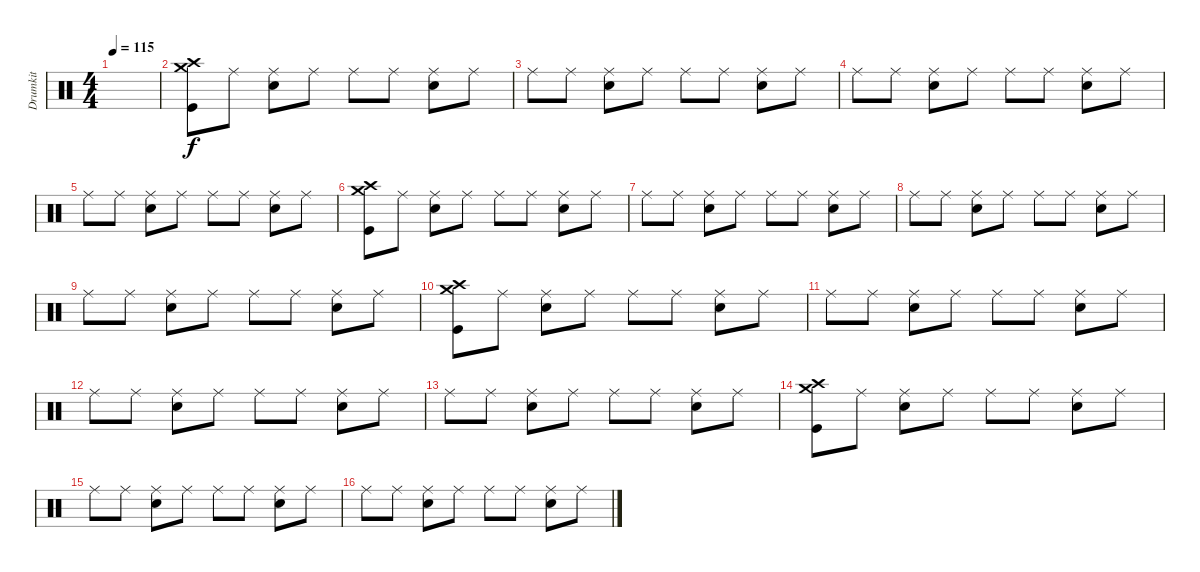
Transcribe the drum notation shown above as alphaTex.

\track ("Drumkit" "Drumkit") {instrument percussion}
\staff {score}
\articulation defaults
\ts (4 4)
\tempo 115
\clef neutral
\ks c
|
("Kick (hit)" "Crash high (hit)" "Crash medium (hit)").8 "Ride (middle)".8 ("Snare (hit) 2" "Ride (middle)").8 "Ride (middle)".8 "Ride (middle)".8 "Ride (middle)".8 ("Snare (hit) 2" "Ride (middle)").8 "Ride (middle)".8 |
"Ride (middle)".8 "Ride (middle)".8 ("Snare (hit) 2" "Ride (middle)").8 "Ride (middle)".8 "Ride (middle)".8 "Ride (middle)".8 ("Snare (hit) 2" "Ride (middle)").8 "Ride (middle)".8 |
"Ride (middle)".8 "Ride (middle)".8 ("Snare (hit) 2" "Ride (middle)").8 "Ride (middle)".8 "Ride (middle)".8 "Ride (middle)".8 ("Snare (hit) 2" "Ride (middle)").8 "Ride (middle)".8 |
"Ride (middle)".8 "Ride (middle)".8 ("Snare (hit) 2" "Ride (middle)").8 "Ride (middle)".8 "Ride (middle)".8 "Ride (middle)".8 ("Snare (hit) 2" "Ride (middle)").8 "Ride (middle)".8 |
("Kick (hit)" "Crash high (hit)" "Crash medium (hit)").8 "Ride (middle)".8 ("Snare (hit) 2" "Ride (middle)").8 "Ride (middle)".8 "Ride (middle)".8 "Ride (middle)".8 ("Snare (hit) 2" "Ride (middle)").8 "Ride (middle)".8 |
"Ride (middle)".8 "Ride (middle)".8 ("Snare (hit) 2" "Ride (middle)").8 "Ride (middle)".8 "Ride (middle)".8 "Ride (middle)".8 ("Snare (hit) 2" "Ride (middle)").8 "Ride (middle)".8 |
"Ride (middle)".8 "Ride (middle)".8 ("Snare (hit) 2" "Ride (middle)").8 "Ride (middle)".8 "Ride (middle)".8 "Ride (middle)".8 ("Snare (hit) 2" "Ride (middle)").8 "Ride (middle)".8 |
"Ride (middle)".8 "Ride (middle)".8 ("Snare (hit) 2" "Ride (middle)").8 "Ride (middle)".8 "Ride (middle)".8 "Ride (middle)".8 ("Snare (hit) 2" "Ride (middle)").8 "Ride (middle)".8 |
("Kick (hit)" "Crash high (hit)" "Crash medium (hit)").8 "Ride (middle)".8 ("Snare (hit) 2" "Ride (middle)").8 "Ride (middle)".8 "Ride (middle)".8 "Ride (middle)".8 ("Snare (hit) 2" "Ride (middle)").8 "Ride (middle)".8 |
"Ride (middle)".8 "Ride (middle)".8 ("Snare (hit) 2" "Ride (middle)").8 "Ride (middle)".8 "Ride (middle)".8 "Ride (middle)".8 ("Snare (hit) 2" "Ride (middle)").8 "Ride (middle)".8 |
"Ride (middle)".8 "Ride (middle)".8 ("Snare (hit) 2" "Ride (middle)").8 "Ride (middle)".8 "Ride (middle)".8 "Ride (middle)".8 ("Snare (hit) 2" "Ride (middle)").8 "Ride (middle)".8 |
"Ride (middle)".8 "Ride (middle)".8 ("Snare (hit) 2" "Ride (middle)").8 "Ride (middle)".8 "Ride (middle)".8 "Ride (middle)".8 ("Snare (hit) 2" "Ride (middle)").8 "Ride (middle)".8 |
("Kick (hit)" "Crash high (hit)" "Crash medium (hit)").8 "Ride (middle)".8 ("Snare (hit) 2" "Ride (middle)").8 "Ride (middle)".8 "Ride (middle)".8 "Ride (middle)".8 ("Snare (hit) 2" "Ride (middle)").8 "Ride (middle)".8 |
"Ride (middle)".8 "Ride (middle)".8 ("Snare (hit) 2" "Ride (middle)").8 "Ride (middle)".8 "Ride (middle)".8 "Ride (middle)".8 ("Snare (hit) 2" "Ride (middle)").8 "Ride (middle)".8 |
"Ride (middle)".8 "Ride (middle)".8 ("Snare (hit) 2" "Ride (middle)").8 "Ride (middle)".8 "Ride (middle)".8 "Ride (middle)".8 ("Snare (hit) 2" "Ride (middle)").8 "Ride (middle)".8
